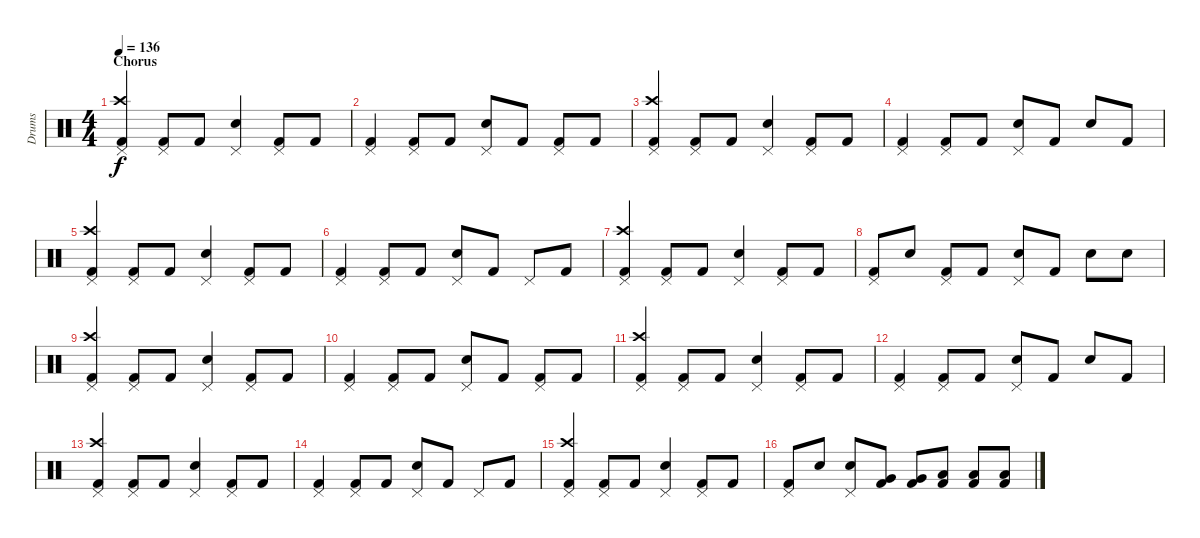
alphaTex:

\track ("Drums" "Drums") {instrument percussion}
\staff {score}
\articulation defaults
\ts (4 4)
\section ("" "Chorus")
\tempo 136
\clef neutral
\ks c
("Pedal Hi-Hat (hit)" "Crash high (hit)" "Kick (hit) 2").4{dy f} ("Pedal Hi-Hat (hit)" "Kick (hit) 2").8 "Kick (hit) 2".8 ("Pedal Hi-Hat (hit)" "Snare (hit) 2").4 ("Pedal Hi-Hat (hit)" "Kick (hit) 2").8 "Kick (hit) 2".8 |
("Pedal Hi-Hat (hit)" "Kick (hit) 2").4 ("Pedal Hi-Hat (hit)" "Kick (hit) 2").8 "Kick (hit) 2".8 ("Pedal Hi-Hat (hit)" "Snare (hit) 2").8 "Kick (hit) 2".8 ("Pedal Hi-Hat (hit)" "Kick (hit) 2").8 "Kick (hit) 2".8 |
("Pedal Hi-Hat (hit)" "Crash high (hit)" "Kick (hit) 2").4 ("Pedal Hi-Hat (hit)" "Kick (hit) 2").8 "Kick (hit) 2".8 ("Pedal Hi-Hat (hit)" "Snare (hit) 2").4 ("Pedal Hi-Hat (hit)" "Kick (hit) 2").8 "Kick (hit) 2".8 |
("Pedal Hi-Hat (hit)" "Kick (hit) 2").4 ("Pedal Hi-Hat (hit)" "Kick (hit) 2").8 "Kick (hit) 2".8 ("Pedal Hi-Hat (hit)" "Snare (hit) 2").8 "Kick (hit) 2".8 "Snare (hit) 2".8 "Kick (hit) 2".8 |
("Pedal Hi-Hat (hit)" "Crash high (hit)" "Kick (hit) 2").4 ("Pedal Hi-Hat (hit)" "Kick (hit) 2").8 "Kick (hit) 2".8 ("Pedal Hi-Hat (hit)" "Snare (hit) 2").4 ("Pedal Hi-Hat (hit)" "Kick (hit) 2").8 "Kick (hit) 2".8 |
("Pedal Hi-Hat (hit)" "Kick (hit) 2").4 ("Pedal Hi-Hat (hit)" "Kick (hit) 2").8 "Kick (hit) 2".8 ("Pedal Hi-Hat (hit)" "Snare (hit) 2").8 "Kick (hit) 2".8 "Pedal Hi-Hat (hit)".8 "Kick (hit) 2".8 |
("Pedal Hi-Hat (hit)" "Crash high (hit)" "Kick (hit) 2").4 ("Pedal Hi-Hat (hit)" "Kick (hit) 2").8 "Kick (hit) 2".8 ("Pedal Hi-Hat (hit)" "Snare (hit) 2").4 ("Pedal Hi-Hat (hit)" "Kick (hit) 2").8 "Kick (hit) 2".8 |
("Pedal Hi-Hat (hit)" "Kick (hit) 2").8 "Snare (hit) 2".8 ("Pedal Hi-Hat (hit)" "Kick (hit) 2").8 "Kick (hit) 2".8 ("Pedal Hi-Hat (hit)" "Snare (hit) 2").8 "Kick (hit) 2".8 "Snare (hit) 2".8 "Snare (hit) 2".8 |
("Pedal Hi-Hat (hit)" "Crash high (hit)" "Kick (hit) 2").4 ("Pedal Hi-Hat (hit)" "Kick (hit) 2").8 "Kick (hit) 2".8 ("Pedal Hi-Hat (hit)" "Snare (hit) 2").4 ("Pedal Hi-Hat (hit)" "Kick (hit) 2").8 "Kick (hit) 2".8 |
("Pedal Hi-Hat (hit)" "Kick (hit) 2").4 ("Pedal Hi-Hat (hit)" "Kick (hit) 2").8 "Kick (hit) 2".8 ("Pedal Hi-Hat (hit)" "Snare (hit) 2").8 "Kick (hit) 2".8 ("Pedal Hi-Hat (hit)" "Kick (hit) 2").8 "Kick (hit) 2".8 |
("Pedal Hi-Hat (hit)" "Crash high (hit)" "Kick (hit) 2").4 ("Pedal Hi-Hat (hit)" "Kick (hit) 2").8 "Kick (hit) 2".8 ("Pedal Hi-Hat (hit)" "Snare (hit) 2").4 ("Pedal Hi-Hat (hit)" "Kick (hit) 2").8 "Kick (hit) 2".8 |
("Pedal Hi-Hat (hit)" "Kick (hit) 2").4 ("Pedal Hi-Hat (hit)" "Kick (hit) 2").8 "Kick (hit) 2".8 ("Pedal Hi-Hat (hit)" "Snare (hit) 2").8 "Kick (hit) 2".8 "Snare (hit) 2".8 "Kick (hit) 2".8 |
("Pedal Hi-Hat (hit)" "Crash high (hit)" "Kick (hit) 2").4 ("Pedal Hi-Hat (hit)" "Kick (hit) 2").8 "Kick (hit) 2".8 ("Pedal Hi-Hat (hit)" "Snare (hit) 2").4 ("Pedal Hi-Hat (hit)" "Kick (hit) 2").8 "Kick (hit) 2".8 |
("Pedal Hi-Hat (hit)" "Kick (hit) 2").4 ("Pedal Hi-Hat (hit)" "Kick (hit) 2").8 "Kick (hit) 2".8 ("Pedal Hi-Hat (hit)" "Snare (hit) 2").8 "Kick (hit) 2".8 "Pedal Hi-Hat (hit)".8 "Kick (hit) 2".8 |
("Pedal Hi-Hat (hit)" "Crash high (hit)" "Kick (hit) 2").4 ("Pedal Hi-Hat (hit)" "Kick (hit) 2").8 "Kick (hit) 2".8 ("Pedal Hi-Hat (hit)" "Snare (hit) 2").4 ("Pedal Hi-Hat (hit)" "Kick (hit) 2").8 "Kick (hit) 2".8 |
("Pedal Hi-Hat (hit)" "Kick (hit) 2").8 "Snare (hit) 2".8 ("Pedal Hi-Hat (hit)" "Snare (hit) 2").8 ("Very Low Tom (hit)" "Kick (hit) 2").8 ("Very Low Tom (hit)" "Kick (hit) 2").8 ("Low Floor Tom (hit)" "Kick (hit) 2").8 ("Low Floor Tom (hit)" "Kick (hit) 2").8 ("Low Floor Tom (hit)" "Kick (hit) 2").8
